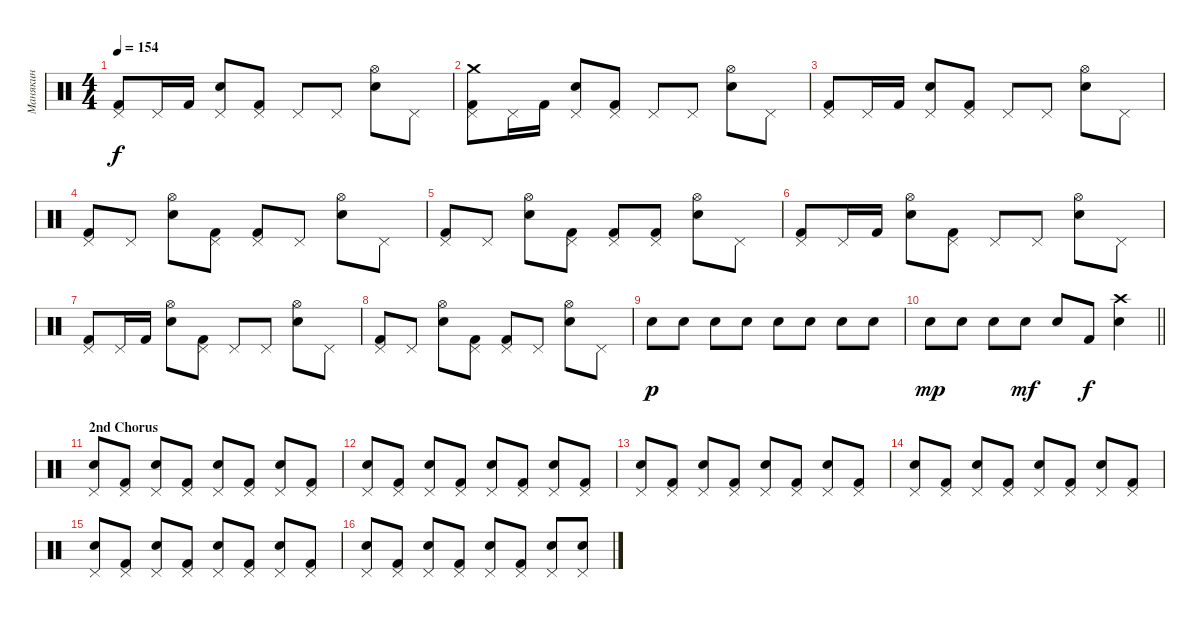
\track ("Манякин" "Манякин") {instrument percussion}
\staff {score}
\articulation defaults
\ts (4 4)
\tempo 154
\clef neutral
\ks c
("Pedal Hi-Hat (hit)" "Kick (hit) 2").8{dy f} "Pedal Hi-Hat (hit)".16 "Kick (hit) 2".16 ("Pedal Hi-Hat (hit)" "Electric Snare (hit)").8 ("Pedal Hi-Hat (hit)" "Kick (hit) 2").8 "Pedal Hi-Hat (hit)".8 "Pedal Hi-Hat (hit)".8 ("Hi-Hat (open)" "Electric Snare (hit)").8 "Pedal Hi-Hat (hit)".8 |
("Crash medium (hit)" "Pedal Hi-Hat (hit)" "Kick (hit) 2").8 "Pedal Hi-Hat (hit)".16 "Kick (hit) 2".16 ("Pedal Hi-Hat (hit)" "Electric Snare (hit)").8 ("Pedal Hi-Hat (hit)" "Kick (hit) 2").8 "Pedal Hi-Hat (hit)".8 "Pedal Hi-Hat (hit)".8 ("Hi-Hat (open)" "Electric Snare (hit)").8 "Pedal Hi-Hat (hit)".8 |
("Pedal Hi-Hat (hit)" "Kick (hit) 2").8 "Pedal Hi-Hat (hit)".16 "Kick (hit) 2".16 ("Pedal Hi-Hat (hit)" "Electric Snare (hit)").8 ("Pedal Hi-Hat (hit)" "Kick (hit) 2").8 "Pedal Hi-Hat (hit)".8 "Pedal Hi-Hat (hit)".8 ("Hi-Hat (open)" "Electric Snare (hit)").8 "Pedal Hi-Hat (hit)".8 |
("Pedal Hi-Hat (hit)" "Kick (hit) 2").8 "Pedal Hi-Hat (hit)".8 ("Hi-Hat (open)" "Electric Snare (hit)").8 ("Pedal Hi-Hat (hit)" "Kick (hit) 2").8 ("Pedal Hi-Hat (hit)" "Kick (hit) 2").8 "Pedal Hi-Hat (hit)".8 ("Hi-Hat (open)" "Electric Snare (hit)").8 "Pedal Hi-Hat (hit)".8 |
("Pedal Hi-Hat (hit)" "Kick (hit) 2").8 "Pedal Hi-Hat (hit)".8 ("Hi-Hat (open)" "Electric Snare (hit)").8 ("Pedal Hi-Hat (hit)" "Kick (hit) 2").8 ("Pedal Hi-Hat (hit)" "Kick (hit) 2").8 ("Pedal Hi-Hat (hit)" "Kick (hit) 2").8 ("Hi-Hat (open)" "Electric Snare (hit)").8 "Pedal Hi-Hat (hit)".8 |
("Pedal Hi-Hat (hit)" "Kick (hit) 2").8 "Pedal Hi-Hat (hit)".16 "Kick (hit) 2".16 ("Hi-Hat (open)" "Electric Snare (hit)").8 ("Pedal Hi-Hat (hit)" "Kick (hit) 2").8 "Pedal Hi-Hat (hit)".8 "Pedal Hi-Hat (hit)".8 ("Hi-Hat (open)" "Electric Snare (hit)").8 "Pedal Hi-Hat (hit)".8 |
("Pedal Hi-Hat (hit)" "Kick (hit) 2").8 "Pedal Hi-Hat (hit)".16 "Kick (hit) 2".16 ("Hi-Hat (open)" "Electric Snare (hit)").8 ("Pedal Hi-Hat (hit)" "Kick (hit) 2").8 "Pedal Hi-Hat (hit)".8 "Pedal Hi-Hat (hit)".8 ("Hi-Hat (open)" "Electric Snare (hit)").8 "Pedal Hi-Hat (hit)".8 |
("Pedal Hi-Hat (hit)" "Kick (hit) 2").8 "Pedal Hi-Hat (hit)".8 ("Hi-Hat (open)" "Electric Snare (hit)").8 ("Pedal Hi-Hat (hit)" "Kick (hit) 2").8 ("Pedal Hi-Hat (hit)" "Kick (hit) 2").8 "Pedal Hi-Hat (hit)".8 ("Hi-Hat (open)" "Electric Snare (hit)").8 "Pedal Hi-Hat (hit)".8 |
"Electric Snare (hit)".8{dy p} "Electric Snare (hit)".8 "Electric Snare (hit)".8 "Electric Snare (hit)".8 "Electric Snare (hit)".8 "Electric Snare (hit)".8 "Electric Snare (hit)".8 "Electric Snare (hit)".8 |
\barLineRight lightlight "Electric Snare (hit)".8{dy mp} "Electric Snare (hit)".8 "Electric Snare (hit)".8 "Electric Snare (hit)".8{dy mf} "Electric Snare (hit)".8 "Kick (hit) 2".8{dy f}
("Crash high (hit)" "Electric Snare (hit)").4 |
\section ("" "2nd Chorus")
("Electric Snare (hit)" "Pedal Hi-Hat (hit)").8 ("Kick (hit) 2" "Pedal Hi-Hat (hit)").8 ("Electric Snare (hit)" "Pedal Hi-Hat (hit)").8 ("Kick (hit) 2" "Pedal Hi-Hat (hit)").8 ("Electric Snare (hit)" "Pedal Hi-Hat (hit)").8 ("Kick (hit) 2" "Pedal Hi-Hat (hit)").8 ("Electric Snare (hit)" "Pedal Hi-Hat (hit)").8 ("Kick (hit) 2" "Pedal Hi-Hat (hit)").8 |
("Electric Snare (hit)" "Pedal Hi-Hat (hit)").8 ("Kick (hit) 2" "Pedal Hi-Hat (hit)").8 ("Electric Snare (hit)" "Pedal Hi-Hat (hit)").8 ("Kick (hit) 2" "Pedal Hi-Hat (hit)").8 ("Electric Snare (hit)" "Pedal Hi-Hat (hit)").8 ("Kick (hit) 2" "Pedal Hi-Hat (hit)").8 ("Electric Snare (hit)" "Pedal Hi-Hat (hit)").8 ("Kick (hit) 2" "Pedal Hi-Hat (hit)").8 |
("Electric Snare (hit)" "Pedal Hi-Hat (hit)").8 ("Kick (hit) 2" "Pedal Hi-Hat (hit)").8 ("Electric Snare (hit)" "Pedal Hi-Hat (hit)").8 ("Kick (hit) 2" "Pedal Hi-Hat (hit)").8 ("Electric Snare (hit)" "Pedal Hi-Hat (hit)").8 ("Kick (hit) 2" "Pedal Hi-Hat (hit)").8 ("Electric Snare (hit)" "Pedal Hi-Hat (hit)").8 ("Kick (hit) 2" "Pedal Hi-Hat (hit)").8 |
("Electric Snare (hit)" "Pedal Hi-Hat (hit)").8 ("Kick (hit) 2" "Pedal Hi-Hat (hit)").8 ("Electric Snare (hit)" "Pedal Hi-Hat (hit)").8 ("Kick (hit) 2" "Pedal Hi-Hat (hit)").8 ("Electric Snare (hit)" "Pedal Hi-Hat (hit)").8 ("Kick (hit) 2" "Pedal Hi-Hat (hit)").8 ("Electric Snare (hit)" "Pedal Hi-Hat (hit)").8 ("Kick (hit) 2" "Pedal Hi-Hat (hit)").8 |
("Electric Snare (hit)" "Pedal Hi-Hat (hit)").8 ("Kick (hit) 2" "Pedal Hi-Hat (hit)").8 ("Electric Snare (hit)" "Pedal Hi-Hat (hit)").8 ("Kick (hit) 2" "Pedal Hi-Hat (hit)").8 ("Electric Snare (hit)" "Pedal Hi-Hat (hit)").8 ("Kick (hit) 2" "Pedal Hi-Hat (hit)").8 ("Electric Snare (hit)" "Pedal Hi-Hat (hit)").8 ("Kick (hit) 2" "Pedal Hi-Hat (hit)").8 |
("Electric Snare (hit)" "Pedal Hi-Hat (hit)").8 ("Kick (hit) 2" "Pedal Hi-Hat (hit)").8 ("Electric Snare (hit)" "Pedal Hi-Hat (hit)").8 ("Kick (hit) 2" "Pedal Hi-Hat (hit)").8 ("Electric Snare (hit)" "Pedal Hi-Hat (hit)").8 ("Kick (hit) 2" "Pedal Hi-Hat (hit)").8 ("Electric Snare (hit)" "Pedal Hi-Hat (hit)").8 ("Electric Snare (hit)" "Pedal Hi-Hat (hit)").8
